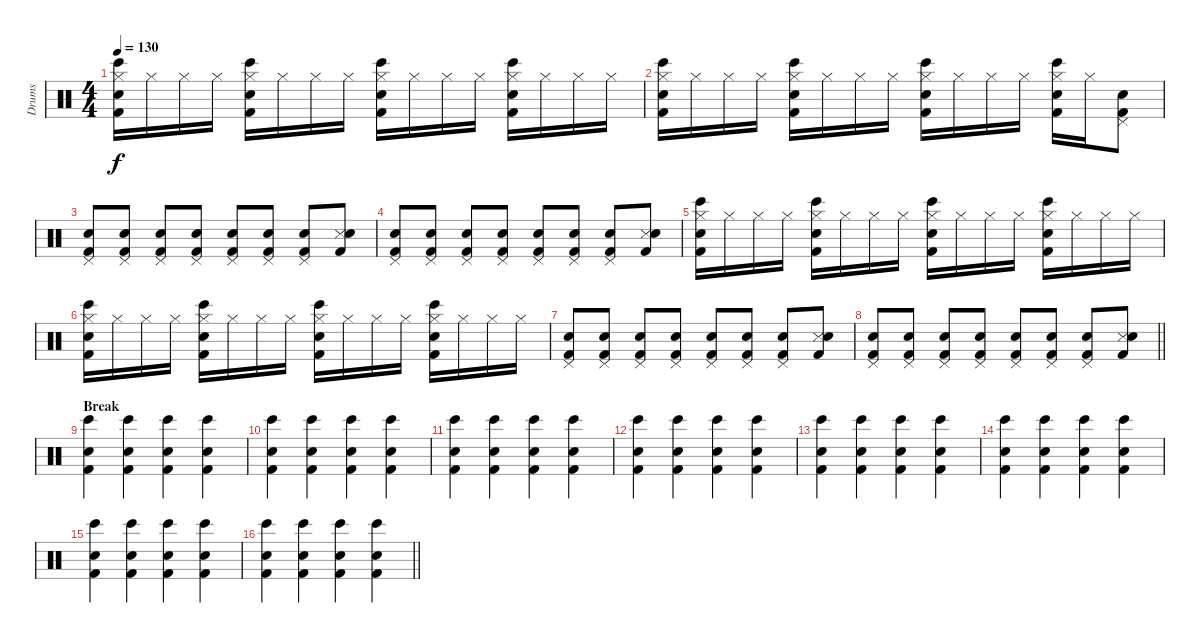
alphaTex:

\track ("Drums" "Drums") {instrument percussion}
\staff {score}
\articulation defaults
\ts (4 4)
\tempo 130
\clef neutral
\ks c
("Hi-Hat (closed)" "Electric Snare (hit)" "Kick (hit) 2" "Bongo High (hit)").16{dy f} "Hi-Hat (closed)".16 "Hi-Hat (closed)".16 "Hi-Hat (closed)".16 ("Hi-Hat (closed)" "Electric Snare (hit)" "Kick (hit) 2" "Bongo High (hit)").16 "Hi-Hat (closed)".16 "Hi-Hat (closed)".16 "Hi-Hat (closed)".16 ("Hi-Hat (closed)" "Electric Snare (hit)" "Kick (hit) 2" "Bongo High (hit)").16 "Hi-Hat (closed)".16 "Hi-Hat (closed)".16 "Hi-Hat (closed)".16 ("Hi-Hat (closed)" "Electric Snare (hit)" "Kick (hit) 2" "Bongo High (hit)").16 "Hi-Hat (closed)".16 "Hi-Hat (closed)".16 "Hi-Hat (closed)".16 |
("Hi-Hat (closed)" "Electric Snare (hit)" "Kick (hit) 2" "Bongo High (hit)").16 "Hi-Hat (closed)".16 "Hi-Hat (closed)".16 "Hi-Hat (closed)".16 ("Hi-Hat (closed)" "Electric Snare (hit)" "Kick (hit) 2" "Bongo High (hit)").16 "Hi-Hat (closed)".16 "Hi-Hat (closed)".16 "Hi-Hat (closed)".16 ("Hi-Hat (closed)" "Electric Snare (hit)" "Kick (hit) 2" "Bongo High (hit)").16 "Hi-Hat (closed)".16 "Hi-Hat (closed)".16 "Hi-Hat (closed)".16 ("Hi-Hat (closed)" "Electric Snare (hit)" "Kick (hit) 2" "Bongo High (hit)").16 "Hi-Hat (closed)".16 ("Pedal Hi-Hat (hit)" "Kick (hit) 2" "Electric Snare (hit)").8 |
("Pedal Hi-Hat (hit)" "Kick (hit) 2" "Electric Snare (hit)").8 ("Pedal Hi-Hat (hit)" "Kick (hit) 2" "Electric Snare (hit)").8 ("Pedal Hi-Hat (hit)" "Kick (hit) 2" "Electric Snare (hit)").8 ("Pedal Hi-Hat (hit)" "Kick (hit) 2" "Electric Snare (hit)").8 ("Pedal Hi-Hat (hit)" "Kick (hit) 2" "Electric Snare (hit)").8 ("Pedal Hi-Hat (hit)" "Kick (hit) 2" "Electric Snare (hit)").8 ("Pedal Hi-Hat (hit)" "Kick (hit) 2" "Electric Snare (hit)").8 ("Snare (side stick) 3" "Kick (hit) 2" "Electric Snare (hit)").8 |
("Pedal Hi-Hat (hit)" "Kick (hit) 2" "Electric Snare (hit)").8 ("Pedal Hi-Hat (hit)" "Kick (hit) 2" "Electric Snare (hit)").8 ("Pedal Hi-Hat (hit)" "Kick (hit) 2" "Electric Snare (hit)").8 ("Pedal Hi-Hat (hit)" "Kick (hit) 2" "Electric Snare (hit)").8 ("Pedal Hi-Hat (hit)" "Kick (hit) 2" "Electric Snare (hit)").8 ("Pedal Hi-Hat (hit)" "Kick (hit) 2" "Electric Snare (hit)").8 ("Pedal Hi-Hat (hit)" "Kick (hit) 2" "Electric Snare (hit)").8 ("Snare (side stick) 3" "Kick (hit) 2" "Electric Snare (hit)").8 |
("Hi-Hat (closed)" "Electric Snare (hit)" "Kick (hit) 2" "Bongo High (hit)").16 "Hi-Hat (closed)".16 "Hi-Hat (closed)".16 "Hi-Hat (closed)".16 ("Hi-Hat (closed)" "Electric Snare (hit)" "Kick (hit) 2" "Bongo High (hit)").16 "Hi-Hat (closed)".16 "Hi-Hat (closed)".16 "Hi-Hat (closed)".16 ("Hi-Hat (closed)" "Electric Snare (hit)" "Kick (hit) 2" "Bongo High (hit)").16 "Hi-Hat (closed)".16 "Hi-Hat (closed)".16 "Hi-Hat (closed)".16 ("Hi-Hat (closed)" "Electric Snare (hit)" "Kick (hit) 2" "Bongo High (hit)").16 "Hi-Hat (closed)".16 "Hi-Hat (closed)".16 "Hi-Hat (closed)".16 |
("Hi-Hat (closed)" "Electric Snare (hit)" "Kick (hit) 2" "Bongo High (hit)").16 "Hi-Hat (closed)".16 "Hi-Hat (closed)".16 "Hi-Hat (closed)".16 ("Hi-Hat (closed)" "Electric Snare (hit)" "Kick (hit) 2" "Bongo High (hit)").16 "Hi-Hat (closed)".16 "Hi-Hat (closed)".16 "Hi-Hat (closed)".16 ("Hi-Hat (closed)" "Electric Snare (hit)" "Kick (hit) 2" "Bongo High (hit)").16 "Hi-Hat (closed)".16 "Hi-Hat (closed)".16 "Hi-Hat (closed)".16 ("Hi-Hat (closed)" "Electric Snare (hit)" "Kick (hit) 2" "Bongo High (hit)").16 "Hi-Hat (closed)".16 "Hi-Hat (closed)".16 "Hi-Hat (closed)".16 |
("Pedal Hi-Hat (hit)" "Kick (hit) 2" "Electric Snare (hit)").8 ("Pedal Hi-Hat (hit)" "Kick (hit) 2" "Electric Snare (hit)").8 ("Pedal Hi-Hat (hit)" "Kick (hit) 2" "Electric Snare (hit)").8 ("Pedal Hi-Hat (hit)" "Kick (hit) 2" "Electric Snare (hit)").8 ("Pedal Hi-Hat (hit)" "Kick (hit) 2" "Electric Snare (hit)").8 ("Pedal Hi-Hat (hit)" "Kick (hit) 2" "Electric Snare (hit)").8 ("Pedal Hi-Hat (hit)" "Kick (hit) 2" "Electric Snare (hit)").8 ("Snare (side stick) 3" "Kick (hit) 2" "Electric Snare (hit)").8 |
\barLineRight lightlight
("Pedal Hi-Hat (hit)" "Kick (hit) 2" "Electric Snare (hit)").8 ("Pedal Hi-Hat (hit)" "Kick (hit) 2" "Electric Snare (hit)").8 ("Pedal Hi-Hat (hit)" "Kick (hit) 2" "Electric Snare (hit)").8 ("Pedal Hi-Hat (hit)" "Kick (hit) 2" "Electric Snare (hit)").8 ("Pedal Hi-Hat (hit)" "Kick (hit) 2" "Electric Snare (hit)").8 ("Pedal Hi-Hat (hit)" "Kick (hit) 2" "Electric Snare (hit)").8 ("Pedal Hi-Hat (hit)" "Kick (hit) 2" "Electric Snare (hit)").8 ("Snare (side stick) 3" "Kick (hit) 2" "Electric Snare (hit)").8 |
\section ("" "Break")
("Electric Snare (hit)" "Kick (hit) 2" "Bongo High (hit)").4 ("Electric Snare (hit)" "Kick (hit) 2" "Bongo High (hit)").4 ("Electric Snare (hit)" "Kick (hit) 2" "Bongo High (hit)").4 ("Electric Snare (hit)" "Kick (hit) 2" "Bongo High (hit)").4 |
("Electric Snare (hit)" "Kick (hit) 2" "Bongo High (hit)").4 ("Electric Snare (hit)" "Kick (hit) 2" "Bongo High (hit)").4 ("Electric Snare (hit)" "Kick (hit) 2" "Bongo High (hit)").4 ("Electric Snare (hit)" "Kick (hit) 2" "Bongo High (hit)").4 |
("Electric Snare (hit)" "Kick (hit) 2" "Bongo High (hit)").4 ("Electric Snare (hit)" "Kick (hit) 2" "Bongo High (hit)").4 ("Electric Snare (hit)" "Kick (hit) 2" "Bongo High (hit)").4 ("Electric Snare (hit)" "Kick (hit) 2" "Bongo High (hit)").4 |
("Electric Snare (hit)" "Kick (hit) 2" "Bongo High (hit)").4 ("Electric Snare (hit)" "Kick (hit) 2" "Bongo High (hit)").4 ("Electric Snare (hit)" "Kick (hit) 2" "Bongo High (hit)").4 ("Electric Snare (hit)" "Kick (hit) 2" "Bongo High (hit)").4 |
("Electric Snare (hit)" "Kick (hit) 2" "Bongo High (hit)").4 ("Electric Snare (hit)" "Kick (hit) 2" "Bongo High (hit)").4 ("Electric Snare (hit)" "Kick (hit) 2" "Bongo High (hit)").4 ("Electric Snare (hit)" "Kick (hit) 2" "Bongo High (hit)").4 |
("Electric Snare (hit)" "Kick (hit) 2" "Bongo High (hit)").4 ("Electric Snare (hit)" "Kick (hit) 2" "Bongo High (hit)").4 ("Electric Snare (hit)" "Kick (hit) 2" "Bongo High (hit)").4 ("Electric Snare (hit)" "Kick (hit) 2" "Bongo High (hit)").4 |
("Electric Snare (hit)" "Kick (hit) 2" "Bongo High (hit)").4 ("Electric Snare (hit)" "Kick (hit) 2" "Bongo High (hit)").4 ("Electric Snare (hit)" "Kick (hit) 2" "Bongo High (hit)").4 ("Electric Snare (hit)" "Kick (hit) 2" "Bongo High (hit)").4 |
\barLineRight lightlight
("Electric Snare (hit)" "Kick (hit) 2" "Bongo High (hit)").4 ("Electric Snare (hit)" "Kick (hit) 2" "Bongo High (hit)").4 ("Electric Snare (hit)" "Kick (hit) 2" "Bongo High (hit)").4 ("Electric Snare (hit)" "Kick (hit) 2" "Bongo High (hit)").4
